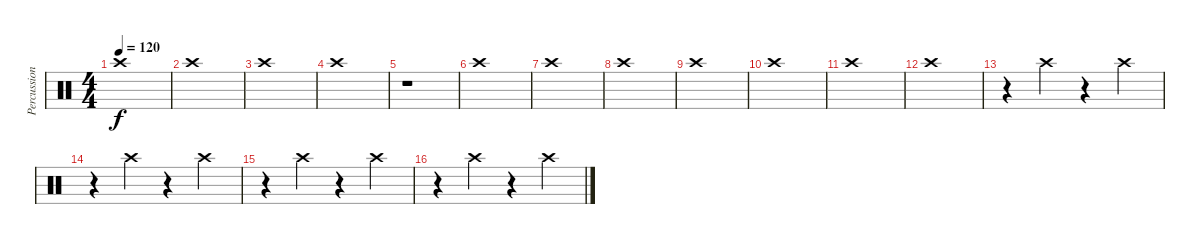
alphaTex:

\track ("Percussion" "Percussion") {instrument percussion}
\staff {score}
\articulation defaults
\ts (4 4)
\tempo 120
\clef neutral
\ks c "Crash high (hit)".1{dy f}
|
"Crash high (hit)".1 |
"Crash high (hit)".1 |
"Crash high (hit)".1 |
r.1 |
"Crash high (hit)".1 |
"Crash high (hit)".1 |
"Crash high (hit)".1 |
"Crash high (hit)".1 |
"Crash high (hit)".1 |
"Crash high (hit)".1 |
"Crash high (hit)".1 |
r.4 "Crash high (hit)".4 r.4 "Crash high (hit)".4 |
r.4 "Crash high (hit)".4 r.4 "Crash high (hit)".4 |
r.4 "Crash high (hit)".4 r.4 "Crash high (hit)".4 |
r.4 "Crash high (hit)".4 r.4 "Crash high (hit)".4
